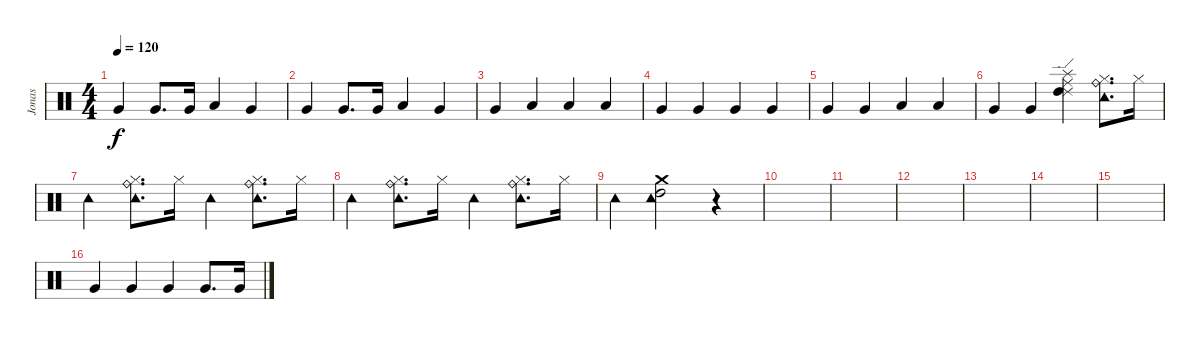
\track ("Jonas" "Jonas") {instrument percussion}
\staff {score}
\articulation defaults
\ts (4 4)
\tempo 120
\clef neutral
\ks c "Very Low Tom (hit)".4{dy f} "Very Low Tom (hit)".8{d} "Very Low Tom (hit)".16 "Low Floor Tom (hit)".4 "Very Low Tom (hit)".4
|
"Very Low Tom (hit)".4 "Very Low Tom (hit)".8{d} "Very Low Tom (hit)".16 "Low Floor Tom (hit)".4 "Very Low Tom (hit)".4 |
"Very Low Tom (hit)".4 "Low Floor Tom (hit)".4 "Low Floor Tom (hit)".4 "Low Floor Tom (hit)".4 |
"Very Low Tom (hit)".4 "Very Low Tom (hit)".4 "Very Low Tom (hit)".4 "Very Low Tom (hit)".4 |
"Very Low Tom (hit)".4 "Very Low Tom (hit)".4 "Low Floor Tom (hit)".4 "Low Floor Tom (hit)".4 |
"Very Low Tom (hit)".4 "Very Low Tom (hit)".4 ("Splash (hit)" "Ride (middle)" "Ride (edge) 2" "High Tom (hit)").4 ("Hi-Hat (closed)" "Tambourine (hit)" "Ride (bell)").8{d} "Hi-Hat (closed)".16 |
"Tambourine (hit)".4 ("Hi-Hat (closed)" "Tambourine (hit)" "Ride (bell)").8{d} "Hi-Hat (closed)".16 "Tambourine (hit)".4 ("Hi-Hat (closed)" "Tambourine (hit)" "Ride (bell)").8{d} "Hi-Hat (closed)".16 |
"Tambourine (hit)".4 ("Hi-Hat (closed)" "Tambourine (hit)" "Ride (bell)").8{d} "Hi-Hat (closed)".16 "Tambourine (hit)".4 ("Hi-Hat (closed)" "Tambourine (hit)" "Ride (bell)").8{d} "Hi-Hat (closed)".16 |
"Tambourine (hit)".4 ("High Tom (hit)" "Crash medium (hit)" "Tambourine (hit)").2 r.4 |
|
|
|
|
|
|
"Very Low Tom (hit)".4 "Very Low Tom (hit)".4 "Very Low Tom (hit)".4 "Very Low Tom (hit)".8{d} "Very Low Tom (hit)".16
